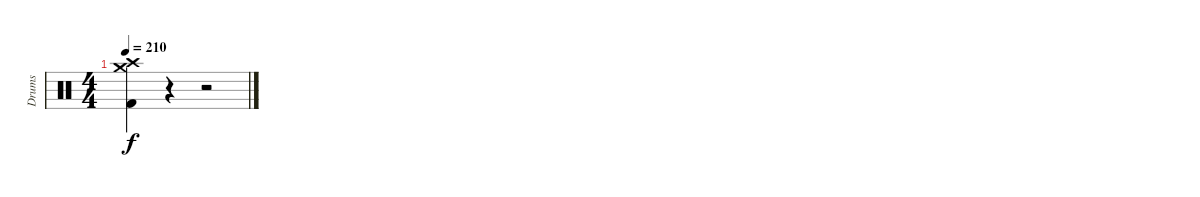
\track ("Drums" "Drums") {instrument percussion}
\staff {score}
\articulation defaults
\ts (4 4)
\tempo 210
\clef neutral
\ks c
("Crash high (hit)" "Crash medium (hit)" "Kick (hit) 2").4{dy f} r.4 r.2
